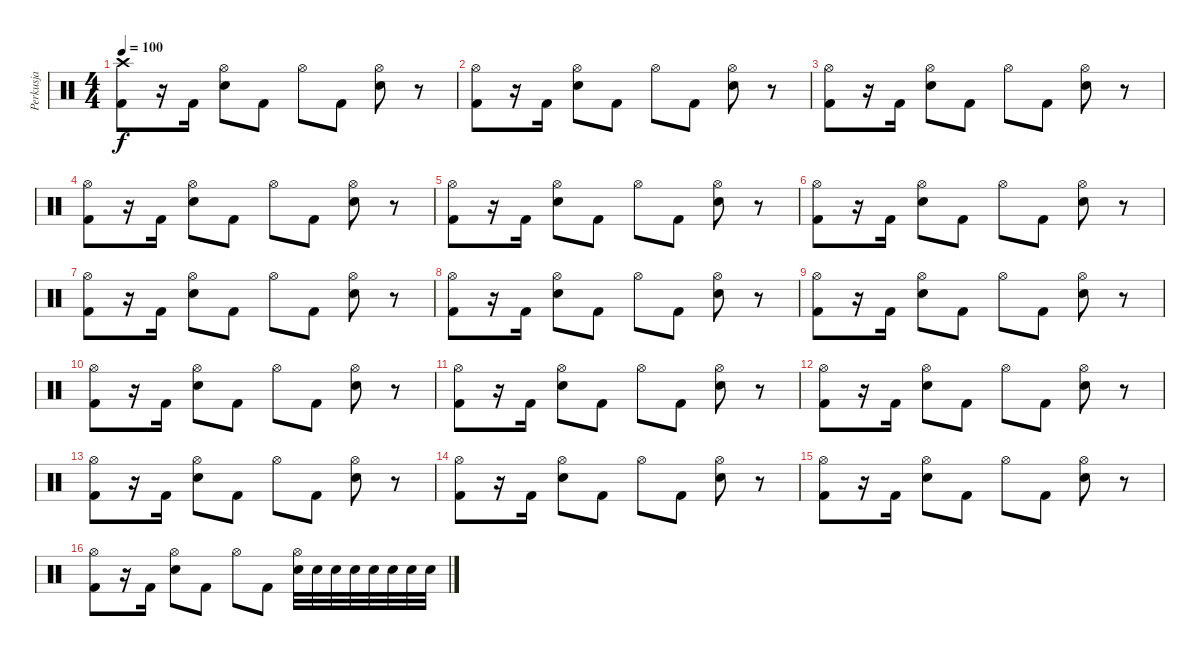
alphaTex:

\track ("Perkusja" "Perkusja") {instrument percussion}
\staff {score}
\articulation defaults
\ts (4 4)
\tempo 100
\clef neutral
\ks c
("Crash high (hit)" "Kick (hit) 2").8{dy f} r.16 "Kick (hit) 2".16 ("Hi-Hat (open)" "Electric Snare (hit)").8 "Kick (hit) 2".8 "Hi-Hat (open)".8 "Kick (hit) 2".8 ("Hi-Hat (open)" "Electric Snare (hit)").8 r.8 |
("Hi-Hat (open)" "Kick (hit) 2").8 r.16 "Kick (hit) 2".16 ("Hi-Hat (open)" "Electric Snare (hit)").8 "Kick (hit) 2".8 "Hi-Hat (open)".8 "Kick (hit) 2".8 ("Hi-Hat (open)" "Electric Snare (hit)").8 r.8 |
("Hi-Hat (open)" "Kick (hit) 2").8 r.16 "Kick (hit) 2".16 ("Hi-Hat (open)" "Electric Snare (hit)").8 "Kick (hit) 2".8 "Hi-Hat (open)".8 "Kick (hit) 2".8 ("Hi-Hat (open)" "Electric Snare (hit)").8 r.8 |
("Hi-Hat (open)" "Kick (hit) 2").8 r.16 "Kick (hit) 2".16 ("Hi-Hat (open)" "Electric Snare (hit)").8 "Kick (hit) 2".8 "Hi-Hat (open)".8 "Kick (hit) 2".8 ("Hi-Hat (open)" "Electric Snare (hit)").8 r.8 |
("Hi-Hat (open)" "Kick (hit) 2").8 r.16 "Kick (hit) 2".16 ("Hi-Hat (open)" "Electric Snare (hit)").8 "Kick (hit) 2".8 "Hi-Hat (open)".8 "Kick (hit) 2".8 ("Hi-Hat (open)" "Electric Snare (hit)").8 r.8 |
("Hi-Hat (open)" "Kick (hit) 2").8 r.16 "Kick (hit) 2".16 ("Hi-Hat (open)" "Electric Snare (hit)").8 "Kick (hit) 2".8 "Hi-Hat (open)".8 "Kick (hit) 2".8 ("Hi-Hat (open)" "Electric Snare (hit)").8 r.8 |
("Hi-Hat (open)" "Kick (hit) 2").8 r.16 "Kick (hit) 2".16 ("Hi-Hat (open)" "Electric Snare (hit)").8 "Kick (hit) 2".8 "Hi-Hat (open)".8 "Kick (hit) 2".8 ("Hi-Hat (open)" "Electric Snare (hit)").8 r.8 |
("Hi-Hat (open)" "Kick (hit) 2").8 r.16 "Kick (hit) 2".16 ("Hi-Hat (open)" "Electric Snare (hit)").8 "Kick (hit) 2".8 "Hi-Hat (open)".8 "Kick (hit) 2".8 ("Hi-Hat (open)" "Electric Snare (hit)").8 r.8 |
("Hi-Hat (open)" "Kick (hit) 2").8 r.16 "Kick (hit) 2".16 ("Hi-Hat (open)" "Electric Snare (hit)").8 "Kick (hit) 2".8 "Hi-Hat (open)".8 "Kick (hit) 2".8 ("Hi-Hat (open)" "Electric Snare (hit)").8 r.8 |
("Hi-Hat (open)" "Kick (hit) 2").8 r.16 "Kick (hit) 2".16 ("Hi-Hat (open)" "Electric Snare (hit)").8 "Kick (hit) 2".8 "Hi-Hat (open)".8 "Kick (hit) 2".8 ("Hi-Hat (open)" "Electric Snare (hit)").8 r.8 |
("Hi-Hat (open)" "Kick (hit) 2").8 r.16 "Kick (hit) 2".16 ("Hi-Hat (open)" "Electric Snare (hit)").8 "Kick (hit) 2".8 "Hi-Hat (open)".8 "Kick (hit) 2".8 ("Hi-Hat (open)" "Electric Snare (hit)").8 r.8 |
("Hi-Hat (open)" "Kick (hit) 2").8 r.16 "Kick (hit) 2".16 ("Hi-Hat (open)" "Electric Snare (hit)").8 "Kick (hit) 2".8 "Hi-Hat (open)".8 "Kick (hit) 2".8 ("Hi-Hat (open)" "Electric Snare (hit)").8 r.8 |
("Hi-Hat (open)" "Kick (hit) 2").8 r.16 "Kick (hit) 2".16 ("Hi-Hat (open)" "Electric Snare (hit)").8 "Kick (hit) 2".8 "Hi-Hat (open)".8 "Kick (hit) 2".8 ("Hi-Hat (open)" "Electric Snare (hit)").8 r.8 |
("Hi-Hat (open)" "Kick (hit) 2").8 r.16 "Kick (hit) 2".16 ("Hi-Hat (open)" "Electric Snare (hit)").8 "Kick (hit) 2".8 "Hi-Hat (open)".8 "Kick (hit) 2".8 ("Hi-Hat (open)" "Electric Snare (hit)").8 r.8 |
("Hi-Hat (open)" "Kick (hit) 2").8 r.16 "Kick (hit) 2".16 ("Hi-Hat (open)" "Electric Snare (hit)").8 "Kick (hit) 2".8 "Hi-Hat (open)".8 "Kick (hit) 2".8 ("Hi-Hat (open)" "Electric Snare (hit)").8 r.8 |
("Hi-Hat (open)" "Kick (hit) 2").8 r.16 "Kick (hit) 2".16 ("Hi-Hat (open)" "Electric Snare (hit)").8 "Kick (hit) 2".8 "Hi-Hat (open)".8 "Kick (hit) 2".8 ("Hi-Hat (open)" "Electric Snare (hit)").32 "Electric Snare (hit)".32 "Electric Snare (hit)".32 "Electric Snare (hit)".32 "Electric Snare (hit)".32 "Electric Snare (hit)".32 "Electric Snare (hit)".32 "Electric Snare (hit)".32
